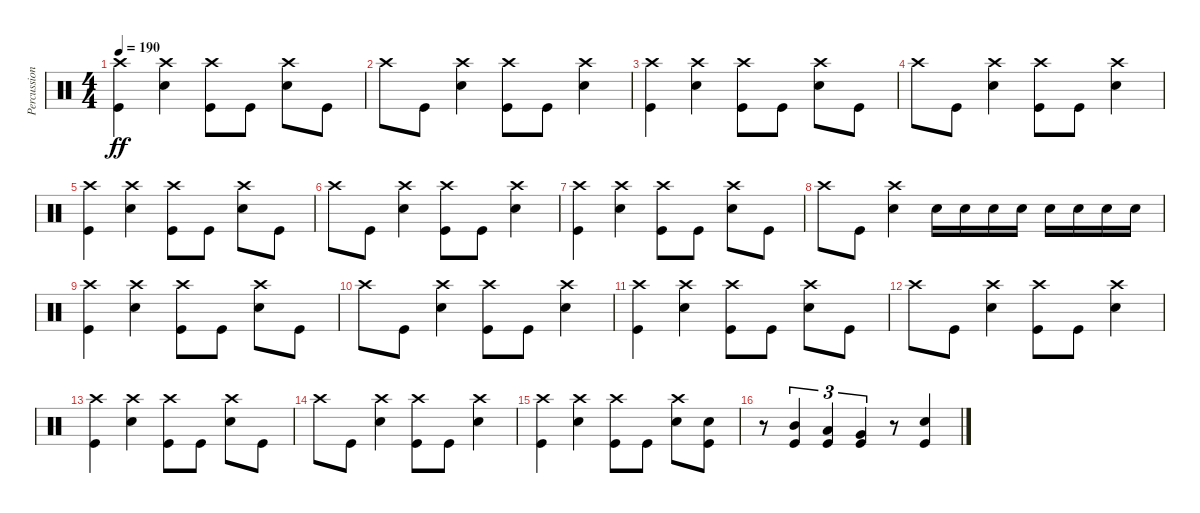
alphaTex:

\track ("Percussions" "Percussion") {instrument percussion}
\staff {score}
\articulation defaults
\ts (4 4)
\tempo 190
\clef neutral
\ks c
("Crash high (hit)" "Kick (hit)").4{dy ff} ("Crash high (hit)" "Electric Snare (hit)").4 ("Crash high (hit)" "Kick (hit)").8 "Kick (hit)".8 ("Crash high (hit)" "Electric Snare (hit)").8 "Kick (hit)".8 |
"Crash high (hit)".8 "Kick (hit)".8 ("Crash high (hit)" "Electric Snare (hit)").4 ("Crash high (hit)" "Kick (hit)").8 "Kick (hit)".8 ("Crash high (hit)" "Electric Snare (hit)").4 |
("Crash high (hit)" "Kick (hit)").4 ("Crash high (hit)" "Electric Snare (hit)").4 ("Crash high (hit)" "Kick (hit)").8 "Kick (hit)".8 ("Crash high (hit)" "Electric Snare (hit)").8 "Kick (hit)".8 |
"Crash high (hit)".8 "Kick (hit)".8 ("Crash high (hit)" "Electric Snare (hit)").4 ("Crash high (hit)" "Kick (hit)").8 "Kick (hit)".8 ("Crash high (hit)" "Electric Snare (hit)").4 |
("Crash high (hit)" "Kick (hit)").4 ("Crash high (hit)" "Electric Snare (hit)").4 ("Crash high (hit)" "Kick (hit)").8 "Kick (hit)".8 ("Crash high (hit)" "Electric Snare (hit)").8 "Kick (hit)".8 |
"Crash high (hit)".8 "Kick (hit)".8 ("Crash high (hit)" "Electric Snare (hit)").4 ("Crash high (hit)" "Kick (hit)").8 "Kick (hit)".8 ("Crash high (hit)" "Electric Snare (hit)").4 |
("Crash high (hit)" "Kick (hit)").4 ("Crash high (hit)" "Electric Snare (hit)").4 ("Crash high (hit)" "Kick (hit)").8 "Kick (hit)".8 ("Crash high (hit)" "Electric Snare (hit)").8 "Kick (hit)".8 |
"Crash high (hit)".8 "Kick (hit)".8 ("Crash high (hit)" "Electric Snare (hit)").4 "Electric Snare (hit)".16 "Electric Snare (hit)".16 "Electric Snare (hit)".16 "Electric Snare (hit)".16 "Electric Snare (hit)".16 "Electric Snare (hit)".16 "Electric Snare (hit)".16 "Electric Snare (hit)".16 |
("Crash high (hit)" "Kick (hit)").4 ("Crash high (hit)" "Electric Snare (hit)").4 ("Crash high (hit)" "Kick (hit)").8 "Kick (hit)".8 ("Crash high (hit)" "Electric Snare (hit)").8 "Kick (hit)".8 |
"Crash high (hit)".8 "Kick (hit)".8 ("Crash high (hit)" "Electric Snare (hit)").4 ("Crash high (hit)" "Kick (hit)").8 "Kick (hit)".8 ("Crash high (hit)" "Electric Snare (hit)").4 |
("Crash high (hit)" "Kick (hit)").4 ("Crash high (hit)" "Electric Snare (hit)").4 ("Crash high (hit)" "Kick (hit)").8 "Kick (hit)".8 ("Crash high (hit)" "Electric Snare (hit)").8 "Kick (hit)".8 |
"Crash high (hit)".8 "Kick (hit)".8 ("Crash high (hit)" "Electric Snare (hit)").4 ("Crash high (hit)" "Kick (hit)").8 "Kick (hit)".8 ("Crash high (hit)" "Electric Snare (hit)").4 |
("Crash high (hit)" "Kick (hit)").4 ("Crash high (hit)" "Electric Snare (hit)").4 ("Crash high (hit)" "Kick (hit)").8 "Kick (hit)".8 ("Crash high (hit)" "Electric Snare (hit)").8 "Kick (hit)".8 |
"Crash high (hit)".8 "Kick (hit)".8 ("Crash high (hit)" "Electric Snare (hit)").4 ("Crash high (hit)" "Kick (hit)").8 "Kick (hit)".8 ("Crash high (hit)" "Electric Snare (hit)").4 |
("Crash high (hit)" "Kick (hit)").4 ("Crash high (hit)" "Electric Snare (hit)").4 ("Crash high (hit)" "Kick (hit)").8 "Kick (hit)".8 ("Crash high (hit)" "Electric Snare (hit)").8 ("Electric Snare (hit)" "Kick (hit)").8 |
r.8 ("Mid Tom (hit)" "Kick (hit)").4{tu (3 2)} ("Low Tom (hit)" "Kick (hit)").4{tu (3 2)} ("Very Low Tom (hit)" "Kick (hit)").4{tu (3 2)} r.8 ("Electric Snare (hit)" "Kick (hit)").4
